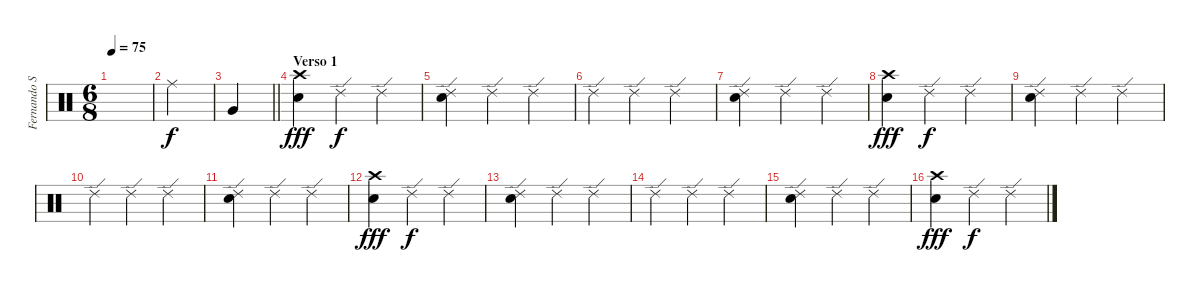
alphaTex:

\track ("Fernando Scarcella " "Fernando S") {instrument percussion}
\staff {score}
\articulation defaults
\ts (6 8)
\tempo 75
\clef neutral
\ks c
|
"Ride (middle)".4{dy f} |
\barLineRight lightlight "Very Low Tom (hit)".4
|
\section ("" "Verso 1")
("Snare (hit) 2" "Crash high (hit)").4{dy fff} "Ride (edge) 2".4{dy f} "Ride (edge) 2".4 |
("Electric Snare (hit)" "Ride (edge) 2").4 "Ride (edge) 2".4 "Ride (edge) 2".4 |
"Ride (edge) 2".4 "Ride (edge) 2".4 "Ride (edge) 2".4 |
("Electric Snare (hit)" "Ride (edge) 2").4 "Ride (edge) 2".4 "Ride (edge) 2".4 |
("Snare (hit) 2" "Crash high (hit)").4{dy fff} "Ride (edge) 2".4{dy f} "Ride (edge) 2".4 |
("Electric Snare (hit)" "Ride (edge) 2").4 "Ride (edge) 2".4 "Ride (edge) 2".4 |
"Ride (edge) 2".4 "Ride (edge) 2".4 "Ride (edge) 2".4 |
("Electric Snare (hit)" "Ride (edge) 2").4 "Ride (edge) 2".4 "Ride (edge) 2".4 |
("Snare (hit) 2" "Crash high (hit)").4{dy fff} "Ride (edge) 2".4{dy f} "Ride (edge) 2".4 |
("Electric Snare (hit)" "Ride (edge) 2").4 "Ride (edge) 2".4 "Ride (edge) 2".4 |
"Ride (edge) 2".4 "Ride (edge) 2".4 "Ride (edge) 2".4 |
("Electric Snare (hit)" "Ride (edge) 2").4 "Ride (edge) 2".4 "Ride (edge) 2".4 |
("Snare (hit) 2" "Crash high (hit)").4{dy fff} "Ride (edge) 2".4{dy f} "Ride (edge) 2".4
